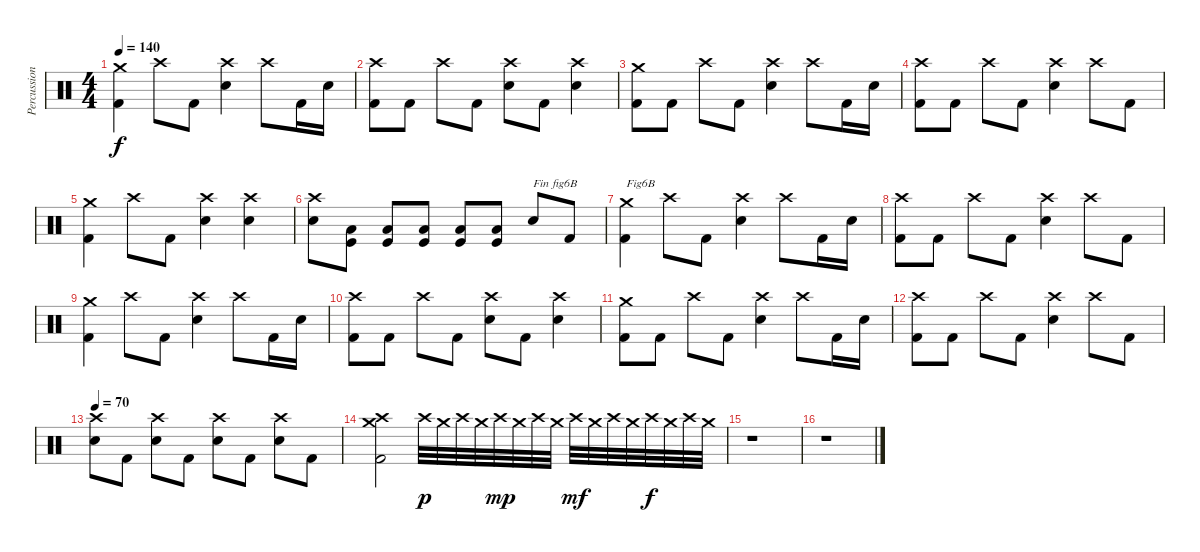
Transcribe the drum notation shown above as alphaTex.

\track ("Percussions" "Percussion") {instrument percussion}
\staff {score}
\articulation defaults
\ts (4 4)
\tempo 140
\clef neutral
\ks c
("Kick (hit) 2" "Crash medium (hit)").4{dy f} "Crash high (hit)".8 "Kick (hit) 2".8 ("Electric Snare (hit)" "Crash high (hit)").4 "Crash high (hit)".8 "Kick (hit) 2".16 "Electric Snare (hit)".16 |
("Kick (hit) 2" "Crash high (hit)").8 "Kick (hit) 2".8 "Crash high (hit)".8 "Kick (hit) 2".8 ("Electric Snare (hit)" "Crash high (hit)").8 "Kick (hit) 2".8 ("Electric Snare (hit)" "Crash high (hit)").4 |
("Kick (hit) 2" "Crash medium (hit)").8 "Kick (hit) 2".8 "Crash high (hit)".8 "Kick (hit) 2".8 ("Electric Snare (hit)" "Crash high (hit)").4 "Crash high (hit)".8 "Kick (hit) 2".16 "Electric Snare (hit)".16 |
("Kick (hit) 2" "Crash high (hit)").8 "Kick (hit) 2".8 "Crash high (hit)".8 "Kick (hit) 2".8 ("Electric Snare (hit)" "Crash high (hit)").4 "Crash high (hit)".8 "Kick (hit) 2".8 |
("Kick (hit) 2" "Crash medium (hit)").4 "Crash high (hit)".8 "Kick (hit) 2".8 ("Electric Snare (hit)" "Crash high (hit)").4 ("Electric Snare (hit)" "Crash high (hit)").4 |
("Electric Snare (hit)" "Crash high (hit)").8 ("Kick (hit)" "Low Floor Tom (hit)").8 ("Kick (hit)" "Low Floor Tom (hit)").8 ("Kick (hit)" "Low Floor Tom (hit)").8 ("Kick (hit)" "Low Floor Tom (hit)").8 ("Kick (hit)" "Low Floor Tom (hit)").8 "Electric Snare (hit)".8{txt "Fin fig6B"} "Kick (hit) 2".8 |
("Kick (hit) 2" "Crash medium (hit)").4{txt "Fig6B"} "Crash high (hit)".8 "Kick (hit) 2".8 ("Electric Snare (hit)" "Crash high (hit)").4 "Crash high (hit)".8 "Kick (hit) 2".16 "Electric Snare (hit)".16 |
("Kick (hit) 2" "Crash high (hit)").8 "Kick (hit) 2".8 "Crash high (hit)".8 "Kick (hit) 2".8 ("Electric Snare (hit)" "Crash high (hit)").4 "Crash high (hit)".8 "Kick (hit) 2".8 |
("Kick (hit) 2" "Crash medium (hit)").4 "Crash high (hit)".8 "Kick (hit) 2".8 ("Electric Snare (hit)" "Crash high (hit)").4 "Crash high (hit)".8 "Kick (hit) 2".16 "Electric Snare (hit)".16 |
("Kick (hit) 2" "Crash high (hit)").8 "Kick (hit) 2".8 "Crash high (hit)".8 "Kick (hit) 2".8 ("Electric Snare (hit)" "Crash high (hit)").8 "Kick (hit) 2".8 ("Electric Snare (hit)" "Crash high (hit)").4 |
("Kick (hit) 2" "Crash medium (hit)").8 "Kick (hit) 2".8 "Crash high (hit)".8 "Kick (hit) 2".8 ("Electric Snare (hit)" "Crash high (hit)").4 "Crash high (hit)".8 "Kick (hit) 2".16 "Electric Snare (hit)".16 |
("Kick (hit) 2" "Crash high (hit)").8 "Kick (hit) 2".8 "Crash high (hit)".8 "Kick (hit) 2".8 ("Electric Snare (hit)" "Crash high (hit)").4 "Crash high (hit)".8 "Kick (hit) 2".8 |
\tempo 70
("Electric Snare (hit)" "Crash high (hit)").8 "Kick (hit) 2".8 ("Electric Snare (hit)" "Crash high (hit)").8 "Kick (hit) 2".8 ("Electric Snare (hit)" "Crash high (hit)").8 "Kick (hit) 2".8 ("Electric Snare (hit)" "Crash high (hit)").8 "Kick (hit) 2".8 |
("Kick (hit) 2" "Crash medium (hit)" "Crash high (hit)").2 "Crash high (hit)".32{dy p} "Crash medium (hit)".32 "Crash high (hit)".32 "Crash medium (hit)".32 "Crash high (hit)".32{dy mp} "Crash medium (hit)".32 "Crash high (hit)".32 "Crash medium (hit)".32 "Crash high (hit)".32{dy mf} "Crash medium (hit)".32 "Crash high (hit)".32 "Crash medium (hit)".32 "Crash high (hit)".32{dy f} "Crash medium (hit)".32 "Crash high (hit)".32 "Crash medium (hit)".32 |
r.1 |
r.1
